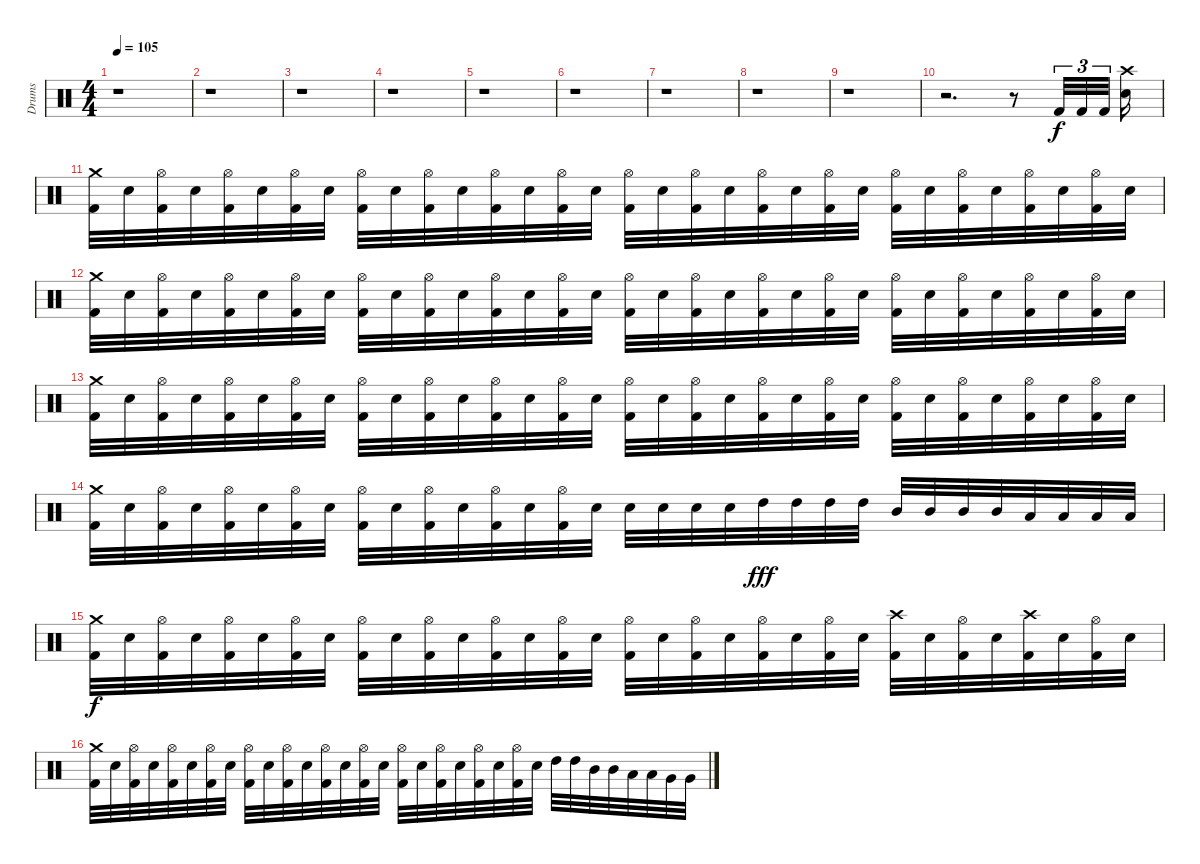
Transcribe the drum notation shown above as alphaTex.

\track ("Drums" "Drums") {instrument percussion}
\staff {score}
\articulation defaults
\ts (4 4)
\tempo 105
\clef neutral
\ks c
r.1{dy f} |
r.1 |
r.1 |
r.1 |
r.1 |
r.1 |
r.1 |
r.1 |
r.1 |
r.2{d} r.8 "Kick (hit) 2".32{tu (3 2)} "Kick (hit) 2".32{tu (3 2)} "Kick (hit) 2".32{tu (3 2)} ("Electric Snare (hit)" "Crash high (hit)").16 |
("Kick (hit) 2" "Crash medium (hit)").32 "Electric Snare (hit)".32 ("Kick (hit) 2" "Hi-Hat (open)").32 "Electric Snare (hit)".32 ("Kick (hit) 2" "Hi-Hat (open)").32 "Electric Snare (hit)".32 ("Kick (hit) 2" "Hi-Hat (open)").32 "Electric Snare (hit)".32 ("Kick (hit) 2" "Hi-Hat (open)").32 "Electric Snare (hit)".32 ("Kick (hit) 2" "Hi-Hat (open)").32 "Electric Snare (hit)".32 ("Kick (hit) 2" "Hi-Hat (open)").32 "Electric Snare (hit)".32 ("Kick (hit) 2" "Hi-Hat (open)").32 "Electric Snare (hit)".32 ("Kick (hit) 2" "Hi-Hat (open)").32 "Electric Snare (hit)".32 ("Kick (hit) 2" "Hi-Hat (open)").32 "Electric Snare (hit)".32 ("Kick (hit) 2" "Hi-Hat (open)").32 "Electric Snare (hit)".32 ("Kick (hit) 2" "Hi-Hat (open)").32 "Electric Snare (hit)".32 ("Kick (hit) 2" "Hi-Hat (open)").32 "Electric Snare (hit)".32 ("Kick (hit) 2" "Hi-Hat (open)").32 "Electric Snare (hit)".32 ("Kick (hit) 2" "Hi-Hat (open)").32 "Electric Snare (hit)".32 ("Kick (hit) 2" "Hi-Hat (open)").32 "Electric Snare (hit)".32 |
("Kick (hit) 2" "Crash medium (hit)").32 "Electric Snare (hit)".32 ("Kick (hit) 2" "Hi-Hat (open)").32 "Electric Snare (hit)".32 ("Kick (hit) 2" "Hi-Hat (open)").32 "Electric Snare (hit)".32 ("Kick (hit) 2" "Hi-Hat (open)").32 "Electric Snare (hit)".32 ("Kick (hit) 2" "Hi-Hat (open)").32 "Electric Snare (hit)".32 ("Kick (hit) 2" "Hi-Hat (open)").32 "Electric Snare (hit)".32 ("Kick (hit) 2" "Hi-Hat (open)").32 "Electric Snare (hit)".32 ("Kick (hit) 2" "Hi-Hat (open)").32 "Electric Snare (hit)".32 ("Kick (hit) 2" "Hi-Hat (open)").32 "Electric Snare (hit)".32 ("Kick (hit) 2" "Hi-Hat (open)").32 "Electric Snare (hit)".32 ("Kick (hit) 2" "Hi-Hat (open)").32 "Electric Snare (hit)".32 ("Kick (hit) 2" "Hi-Hat (open)").32 "Electric Snare (hit)".32 ("Kick (hit) 2" "Hi-Hat (open)").32 "Electric Snare (hit)".32 ("Kick (hit) 2" "Hi-Hat (open)").32 "Electric Snare (hit)".32 ("Kick (hit) 2" "Hi-Hat (open)").32 "Electric Snare (hit)".32 ("Kick (hit) 2" "Hi-Hat (open)").32 "Electric Snare (hit)".32 |
("Kick (hit) 2" "Crash medium (hit)").32 "Electric Snare (hit)".32 ("Kick (hit) 2" "Hi-Hat (open)").32 "Electric Snare (hit)".32 ("Kick (hit) 2" "Hi-Hat (open)").32 "Electric Snare (hit)".32 ("Kick (hit) 2" "Hi-Hat (open)").32 "Electric Snare (hit)".32 ("Kick (hit) 2" "Hi-Hat (open)").32 "Electric Snare (hit)".32 ("Kick (hit) 2" "Hi-Hat (open)").32 "Electric Snare (hit)".32 ("Kick (hit) 2" "Hi-Hat (open)").32 "Electric Snare (hit)".32 ("Kick (hit) 2" "Hi-Hat (open)").32 "Electric Snare (hit)".32 ("Kick (hit) 2" "Hi-Hat (open)").32 "Electric Snare (hit)".32 ("Kick (hit) 2" "Hi-Hat (open)").32 "Electric Snare (hit)".32 ("Kick (hit) 2" "Hi-Hat (open)").32 "Electric Snare (hit)".32 ("Kick (hit) 2" "Hi-Hat (open)").32 "Electric Snare (hit)".32 ("Kick (hit) 2" "Hi-Hat (open)").32 "Electric Snare (hit)".32 ("Kick (hit) 2" "Hi-Hat (open)").32 "Electric Snare (hit)".32 ("Kick (hit) 2" "Hi-Hat (open)").32 "Electric Snare (hit)".32 ("Kick (hit) 2" "Hi-Hat (open)").32 "Electric Snare (hit)".32 |
("Kick (hit) 2" "Crash medium (hit)").32 "Electric Snare (hit)".32 ("Kick (hit) 2" "Hi-Hat (open)").32 "Electric Snare (hit)".32 ("Kick (hit) 2" "Hi-Hat (open)").32 "Electric Snare (hit)".32 ("Kick (hit) 2" "Hi-Hat (open)").32 "Electric Snare (hit)".32 ("Kick (hit) 2" "Hi-Hat (open)").32 "Electric Snare (hit)".32 ("Kick (hit) 2" "Hi-Hat (open)").32 "Electric Snare (hit)".32 ("Kick (hit) 2" "Hi-Hat (open)").32 "Electric Snare (hit)".32 ("Kick (hit) 2" "Hi-Hat (open)").32 "Electric Snare (hit)".32 "Electric Snare (hit)".32 "Electric Snare (hit)".32 "Electric Snare (hit)".32 "Electric Snare (hit)".32 "High Tom (hit)".32{dy fff} "High Tom (hit)".32 "High Tom (hit)".32 "High Tom (hit)".32 "Mid Tom (hit)".32 "Mid Tom (hit)".32 "Mid Tom (hit)".32 "Mid Tom (hit)".32 "Low Tom (hit)".32 "Low Tom (hit)".32 "Low Tom (hit)".32 "Low Tom (hit)".32 |
("Kick (hit) 2" "Crash medium (hit)").32{dy f} "Electric Snare (hit)".32 ("Kick (hit) 2" "Hi-Hat (open)").32 "Electric Snare (hit)".32 ("Kick (hit) 2" "Hi-Hat (open)").32 "Electric Snare (hit)".32 ("Kick (hit) 2" "Hi-Hat (open)").32 "Electric Snare (hit)".32 ("Kick (hit) 2" "Hi-Hat (open)").32 "Electric Snare (hit)".32 ("Kick (hit) 2" "Hi-Hat (open)").32 "Electric Snare (hit)".32 ("Kick (hit) 2" "Hi-Hat (open)").32 "Electric Snare (hit)".32 ("Kick (hit) 2" "Hi-Hat (open)").32 "Electric Snare (hit)".32 ("Kick (hit) 2" "Hi-Hat (open)").32 "Electric Snare (hit)".32 ("Kick (hit) 2" "Hi-Hat (open)").32 "Electric Snare (hit)".32 ("Kick (hit) 2" "Hi-Hat (open)").32 "Electric Snare (hit)".32 ("Kick (hit) 2" "Hi-Hat (open)").32 "Electric Snare (hit)".32 ("Kick (hit) 2" "Crash high (hit)").32 "Electric Snare (hit)".32 ("Kick (hit) 2" "Hi-Hat (open)").32 "Electric Snare (hit)".32 ("Kick (hit) 2" "Crash high (hit)").32 "Electric Snare (hit)".32 ("Kick (hit) 2" "Hi-Hat (open)").32 "Electric Snare (hit)".32 |
("Kick (hit) 2" "Crash medium (hit)").32 "Electric Snare (hit)".32 ("Kick (hit) 2" "Hi-Hat (open)").32 "Electric Snare (hit)".32 ("Kick (hit) 2" "Hi-Hat (open)").32 "Electric Snare (hit)".32 ("Kick (hit) 2" "Hi-Hat (open)").32 "Electric Snare (hit)".32 ("Kick (hit) 2" "Hi-Hat (open)").32 "Electric Snare (hit)".32 ("Kick (hit) 2" "Hi-Hat (open)").32 "Electric Snare (hit)".32 ("Kick (hit) 2" "Hi-Hat (open)").32 "Electric Snare (hit)".32 ("Kick (hit) 2" "Hi-Hat (open)").32 "Electric Snare (hit)".32 ("Kick (hit) 2" "Hi-Hat (open)").32 "Electric Snare (hit)".32 ("Kick (hit) 2" "Hi-Hat (open)").32 "Electric Snare (hit)".32 ("Kick (hit) 2" "Hi-Hat (open)").32 "Electric Snare (hit)".32 ("Kick (hit) 2" "Hi-Hat (open)").32 "Electric Snare (hit)".32 "High Tom (hit)".32 "High Tom (hit)".32 "Mid Tom (hit)".32 "Mid Tom (hit)".32 "Low Tom (hit)".32 "Low Tom (hit)".32 "Very Low Tom (hit)".32 "Very Low Tom (hit)".32
